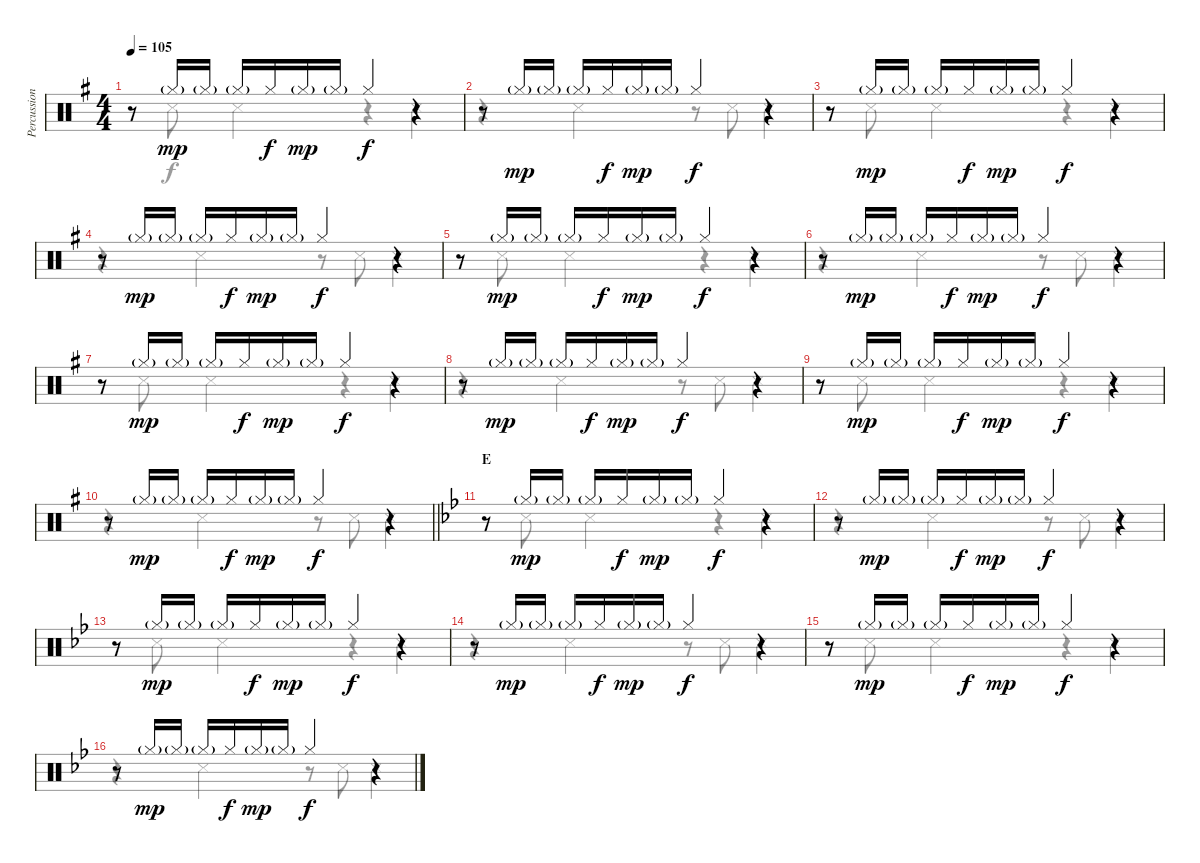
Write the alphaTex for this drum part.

\track ("Percussion" "Percussion") {instrument percussion}
\staff {score}
\articulation defaults
\voice
\ts (4 4)
\tempo 105
\clef neutral
\ks g
r.8{dy f} "Hi-Hat (closed)"{g}.16{dy mp} "Hi-Hat (closed)"{g}.16 "Hi-Hat (closed)"{g}.16 "Hi-Hat (closed)".16{dy f} "Hi-Hat (closed)"{g}.16{dy mp} "Hi-Hat (closed)"{g}.16 "Hi-Hat (closed)".4{dy f} r.4 |
r.8 "Hi-Hat (closed)"{g}.16{dy mp} "Hi-Hat (closed)"{g}.16 "Hi-Hat (closed)"{g}.16 "Hi-Hat (closed)".16{dy f} "Hi-Hat (closed)"{g}.16{dy mp} "Hi-Hat (closed)"{g}.16 "Hi-Hat (closed)".4{dy f} r.4 |
r.8 "Hi-Hat (closed)"{g}.16{dy mp} "Hi-Hat (closed)"{g}.16 "Hi-Hat (closed)"{g}.16 "Hi-Hat (closed)".16{dy f} "Hi-Hat (closed)"{g}.16{dy mp} "Hi-Hat (closed)"{g}.16 "Hi-Hat (closed)".4{dy f} r.4 |
r.8 "Hi-Hat (closed)"{g}.16{dy mp} "Hi-Hat (closed)"{g}.16 "Hi-Hat (closed)"{g}.16 "Hi-Hat (closed)".16{dy f} "Hi-Hat (closed)"{g}.16{dy mp} "Hi-Hat (closed)"{g}.16 "Hi-Hat (closed)".4{dy f} r.4 |
r.8 "Hi-Hat (closed)"{g}.16{dy mp} "Hi-Hat (closed)"{g}.16 "Hi-Hat (closed)"{g}.16 "Hi-Hat (closed)".16{dy f} "Hi-Hat (closed)"{g}.16{dy mp} "Hi-Hat (closed)"{g}.16 "Hi-Hat (closed)".4{dy f} r.4 |
r.8 "Hi-Hat (closed)"{g}.16{dy mp} "Hi-Hat (closed)"{g}.16 "Hi-Hat (closed)"{g}.16 "Hi-Hat (closed)".16{dy f} "Hi-Hat (closed)"{g}.16{dy mp} "Hi-Hat (closed)"{g}.16 "Hi-Hat (closed)".4{dy f} r.4 |
r.8 "Hi-Hat (closed)"{g}.16{dy mp} "Hi-Hat (closed)"{g}.16 "Hi-Hat (closed)"{g}.16 "Hi-Hat (closed)".16{dy f} "Hi-Hat (closed)"{g}.16{dy mp} "Hi-Hat (closed)"{g}.16 "Hi-Hat (closed)".4{dy f} r.4 |
r.8 "Hi-Hat (closed)"{g}.16{dy mp} "Hi-Hat (closed)"{g}.16 "Hi-Hat (closed)"{g}.16 "Hi-Hat (closed)".16{dy f} "Hi-Hat (closed)"{g}.16{dy mp} "Hi-Hat (closed)"{g}.16 "Hi-Hat (closed)".4{dy f} r.4 |
r.8 "Hi-Hat (closed)"{g}.16{dy mp} "Hi-Hat (closed)"{g}.16 "Hi-Hat (closed)"{g}.16 "Hi-Hat (closed)".16{dy f} "Hi-Hat (closed)"{g}.16{dy mp} "Hi-Hat (closed)"{g}.16 "Hi-Hat (closed)".4{dy f} r.4 |
\barLineRight lightlight
r.8 "Hi-Hat (closed)"{g}.16{dy mp} "Hi-Hat (closed)"{g}.16 "Hi-Hat (closed)"{g}.16 "Hi-Hat (closed)".16{dy f} "Hi-Hat (closed)"{g}.16{dy mp} "Hi-Hat (closed)"{g}.16 "Hi-Hat (closed)".4{dy f} r.4 |
\section ("" "E")
\ks bb
r.8 "Hi-Hat (closed)"{g}.16{dy mp} "Hi-Hat (closed)"{g}.16 "Hi-Hat (closed)"{g}.16 "Hi-Hat (closed)".16{dy f} "Hi-Hat (closed)"{g}.16{dy mp} "Hi-Hat (closed)"{g}.16 "Hi-Hat (closed)".4{dy f} r.4 |
r.8 "Hi-Hat (closed)"{g}.16{dy mp} "Hi-Hat (closed)"{g}.16 "Hi-Hat (closed)"{g}.16 "Hi-Hat (closed)".16{dy f} "Hi-Hat (closed)"{g}.16{dy mp} "Hi-Hat (closed)"{g}.16 "Hi-Hat (closed)".4{dy f} r.4 |
r.8 "Hi-Hat (closed)"{g}.16{dy mp} "Hi-Hat (closed)"{g}.16 "Hi-Hat (closed)"{g}.16 "Hi-Hat (closed)".16{dy f} "Hi-Hat (closed)"{g}.16{dy mp} "Hi-Hat (closed)"{g}.16 "Hi-Hat (closed)".4{dy f} r.4 |
r.8 "Hi-Hat (closed)"{g}.16{dy mp} "Hi-Hat (closed)"{g}.16 "Hi-Hat (closed)"{g}.16 "Hi-Hat (closed)".16{dy f} "Hi-Hat (closed)"{g}.16{dy mp} "Hi-Hat (closed)"{g}.16 "Hi-Hat (closed)".4{dy f} r.4 |
r.8 "Hi-Hat (closed)"{g}.16{dy mp} "Hi-Hat (closed)"{g}.16 "Hi-Hat (closed)"{g}.16 "Hi-Hat (closed)".16{dy f} "Hi-Hat (closed)"{g}.16{dy mp} "Hi-Hat (closed)"{g}.16 "Hi-Hat (closed)".4{dy f} r.4 |
r.8 "Hi-Hat (closed)"{g}.16{dy mp} "Hi-Hat (closed)"{g}.16 "Hi-Hat (closed)"{g}.16 "Hi-Hat (closed)".16{dy f} "Hi-Hat (closed)"{g}.16{dy mp} "Hi-Hat (closed)"{g}.16 "Hi-Hat (closed)".4{dy f} r.4
\voice
\clef neutral
\ottava regular
\simile none
\ks g
r.8{dy f} "Snare (side stick) 3".8 "Snare (side stick) 3".4 r.4 "Snare (side stick) 3".4 |
r.4 "Snare (side stick) 3".4 r.8 "Snare (side stick) 3".8 "Snare (side stick) 3".4 |
r.8 "Snare (side stick) 3".8 "Snare (side stick) 3".4 r.4 "Snare (side stick) 3".4 |
r.4 "Snare (side stick) 3".4 r.8 "Snare (side stick) 3".8 "Snare (side stick) 3".4 |
r.8 "Snare (side stick) 3".8 "Snare (side stick) 3".4 r.4 "Snare (side stick) 3".4 |
r.4 "Snare (side stick) 3".4 r.8 "Snare (side stick) 3".8 "Snare (side stick) 3".4 |
r.8 "Snare (side stick) 3".8 "Snare (side stick) 3".4 r.4 "Snare (side stick) 3".4 |
r.4 "Snare (side stick) 3".4 r.8 "Snare (side stick) 3".8 "Snare (side stick) 3".4 |
r.8 "Snare (side stick) 3".8 "Snare (side stick) 3".4 r.4 "Snare (side stick) 3".4 |
\barLineRight lightlight
r.4 "Snare (side stick) 3".4 r.8 "Snare (side stick) 3".8 "Snare (side stick) 3".4 |
\ks bb
r.8 "Snare (side stick) 3".8 "Snare (side stick) 3".4 r.4 "Snare (side stick) 3".4 |
r.4 "Snare (side stick) 3".4 r.8 "Snare (side stick) 3".8 "Snare (side stick) 3".4 |
r.8 "Snare (side stick) 3".8 "Snare (side stick) 3".4 r.4 "Snare (side stick) 3".4 |
r.4 "Snare (side stick) 3".4 r.8 "Snare (side stick) 3".8 "Snare (side stick) 3".4 |
r.8 "Snare (side stick) 3".8 "Snare (side stick) 3".4 r.4 "Snare (side stick) 3".4 |
r.4 "Snare (side stick) 3".4 r.8 "Snare (side stick) 3".8 "Snare (side stick) 3".4
